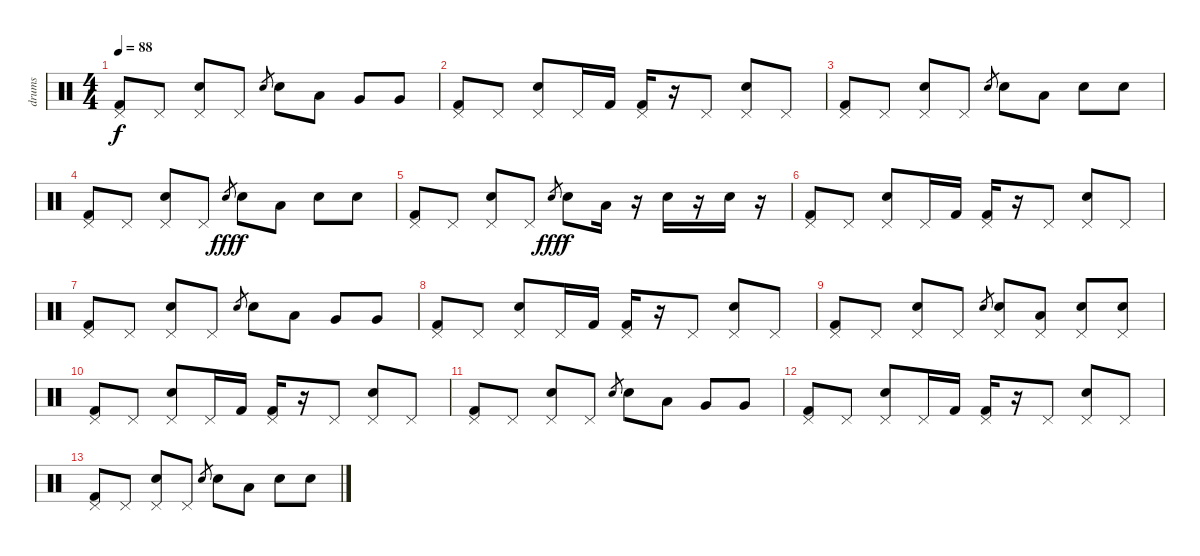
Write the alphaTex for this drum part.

\track ("drums" "drums") {instrument percussion}
\staff {score}
\articulation defaults
\ts (4 4)
\tempo 88
\clef neutral
\ks c
("Kick (hit) 2" "Pedal Hi-Hat (hit)").8{dy f} "Pedal Hi-Hat (hit)".8 ("Electric Snare (hit)" "Pedal Hi-Hat (hit)").8 "Pedal Hi-Hat (hit)".8 "Electric Snare (hit)".8{gr} "Electric Snare (hit)".8 "Low Tom (hit)".8 "Very Low Tom (hit)".8 "Very Low Tom (hit)".8 |
("Kick (hit) 2" "Pedal Hi-Hat (hit)").8 "Pedal Hi-Hat (hit)".8 ("Electric Snare (hit)" "Pedal Hi-Hat (hit)").8 "Pedal Hi-Hat (hit)".16 "Kick (hit) 2".16 ("Kick (hit) 2" "Pedal Hi-Hat (hit)").16 r.16 "Pedal Hi-Hat (hit)".8 ("Electric Snare (hit)" "Pedal Hi-Hat (hit)").8 "Pedal Hi-Hat (hit)".8 |
("Kick (hit) 2" "Pedal Hi-Hat (hit)").8 "Pedal Hi-Hat (hit)".8 ("Electric Snare (hit)" "Pedal Hi-Hat (hit)").8 "Pedal Hi-Hat (hit)".8 "Electric Snare (hit)".8{gr} "Electric Snare (hit)".8 "Low Tom (hit)".8 "Electric Snare (hit)".8 "Electric Snare (hit)".8 |
("Kick (hit) 2" "Pedal Hi-Hat (hit)").8 "Pedal Hi-Hat (hit)".8 ("Electric Snare (hit)" "Pedal Hi-Hat (hit)").8 "Pedal Hi-Hat (hit)".8 "Electric Snare (hit)".8{gr dy fff} "Electric Snare (hit)".8{dy f} "Low Tom (hit)".8 "Electric Snare (hit)".8 "Electric Snare (hit)".8 |
("Kick (hit) 2" "Pedal Hi-Hat (hit)").8 "Pedal Hi-Hat (hit)".8 ("Electric Snare (hit)" "Pedal Hi-Hat (hit)").8 "Pedal Hi-Hat (hit)".8 "Electric Snare (hit)".8{gr dy fff} "Electric Snare (hit)".8{dy f} "Low Tom (hit)".16 r.16 "Electric Snare (hit)".16 r.16 "Electric Snare (hit)".16 r.16 |
("Kick (hit) 2" "Pedal Hi-Hat (hit)").8 "Pedal Hi-Hat (hit)".8 ("Electric Snare (hit)" "Pedal Hi-Hat (hit)").8 "Pedal Hi-Hat (hit)".16 "Kick (hit) 2".16 ("Kick (hit) 2" "Pedal Hi-Hat (hit)").16 r.16 "Pedal Hi-Hat (hit)".8 ("Electric Snare (hit)" "Pedal Hi-Hat (hit)").8 "Pedal Hi-Hat (hit)".8 |
("Kick (hit) 2" "Pedal Hi-Hat (hit)").8 "Pedal Hi-Hat (hit)".8 ("Electric Snare (hit)" "Pedal Hi-Hat (hit)").8 "Pedal Hi-Hat (hit)".8 "Electric Snare (hit)".8{gr} "Electric Snare (hit)".8 "Low Tom (hit)".8 "Very Low Tom (hit)".8 "Very Low Tom (hit)".8 |
("Kick (hit) 2" "Pedal Hi-Hat (hit)").8 "Pedal Hi-Hat (hit)".8 ("Electric Snare (hit)" "Pedal Hi-Hat (hit)").8 "Pedal Hi-Hat (hit)".16 "Kick (hit) 2".16 ("Kick (hit) 2" "Pedal Hi-Hat (hit)").16 r.16 "Pedal Hi-Hat (hit)".8 ("Electric Snare (hit)" "Pedal Hi-Hat (hit)").8 "Pedal Hi-Hat (hit)".8 |
("Kick (hit) 2" "Pedal Hi-Hat (hit)").8 "Pedal Hi-Hat (hit)".8 ("Electric Snare (hit)" "Pedal Hi-Hat (hit)").8 "Pedal Hi-Hat (hit)".8 "Electric Snare (hit)".8{gr} ("Electric Snare (hit)" "Pedal Hi-Hat (hit)").8 ("Low Tom (hit)" "Pedal Hi-Hat (hit)").8 ("Electric Snare (hit)" "Pedal Hi-Hat (hit)").8 ("Electric Snare (hit)" "Pedal Hi-Hat (hit)").8 |
("Kick (hit) 2" "Pedal Hi-Hat (hit)").8 "Pedal Hi-Hat (hit)".8 ("Electric Snare (hit)" "Pedal Hi-Hat (hit)").8 "Pedal Hi-Hat (hit)".16 "Kick (hit) 2".16 ("Kick (hit) 2" "Pedal Hi-Hat (hit)").16 r.16 "Pedal Hi-Hat (hit)".8 ("Electric Snare (hit)" "Pedal Hi-Hat (hit)").8 "Pedal Hi-Hat (hit)".8 |
("Kick (hit) 2" "Pedal Hi-Hat (hit)").8 "Pedal Hi-Hat (hit)".8 ("Electric Snare (hit)" "Pedal Hi-Hat (hit)").8 "Pedal Hi-Hat (hit)".8 "Electric Snare (hit)".8{gr} "Electric Snare (hit)".8 "Low Tom (hit)".8 "Very Low Tom (hit)".8 "Very Low Tom (hit)".8 |
("Kick (hit) 2" "Pedal Hi-Hat (hit)").8 "Pedal Hi-Hat (hit)".8 ("Electric Snare (hit)" "Pedal Hi-Hat (hit)").8 "Pedal Hi-Hat (hit)".16 "Kick (hit) 2".16 ("Kick (hit) 2" "Pedal Hi-Hat (hit)").16 r.16 "Pedal Hi-Hat (hit)".8 ("Electric Snare (hit)" "Pedal Hi-Hat (hit)").8 "Pedal Hi-Hat (hit)".8 |
("Kick (hit) 2" "Pedal Hi-Hat (hit)").8 "Pedal Hi-Hat (hit)".8 ("Electric Snare (hit)" "Pedal Hi-Hat (hit)").8 "Pedal Hi-Hat (hit)".8 "Electric Snare (hit)".8{gr} "Electric Snare (hit)".8 "Low Tom (hit)".8 "Electric Snare (hit)".8 "Electric Snare (hit)".8
